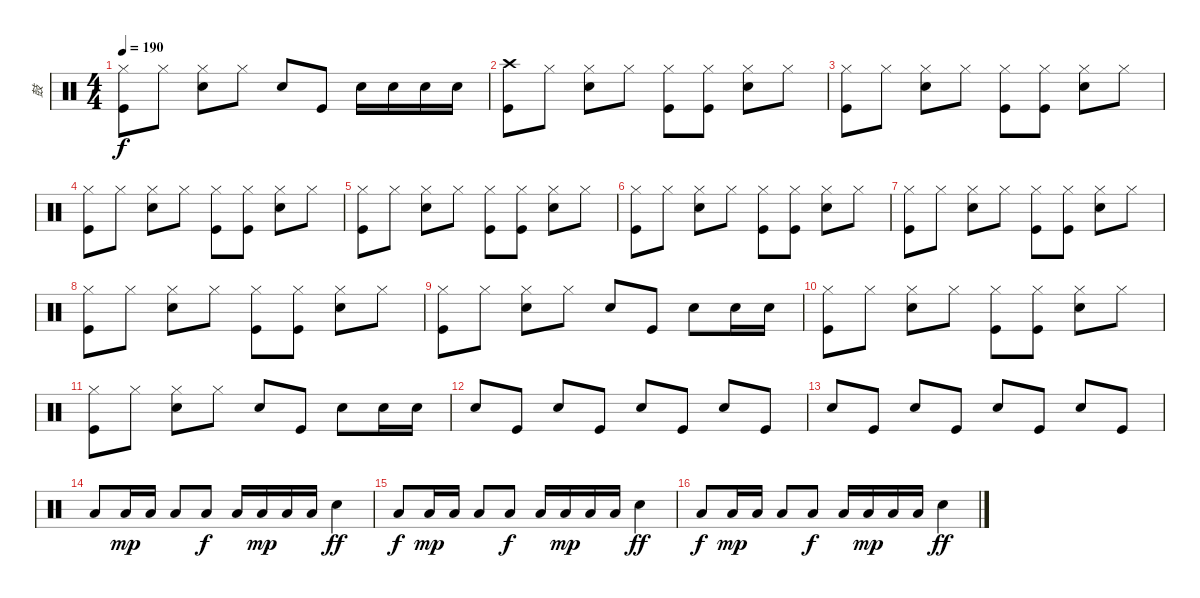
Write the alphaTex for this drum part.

\track ("鼓" "鼓") {instrument percussion}
\staff {score}
\articulation defaults
\ts (4 4)
\tempo 190
\clef neutral
\ks c
("Hi-Hat (closed)" "Kick (hit)").8{dy f} "Hi-Hat (closed)".8 ("Hi-Hat (closed)" "Snare (hit) 2").8 "Hi-Hat (closed)".8 "Snare (hit) 2".8 "Kick (hit)".8 "Snare (hit) 2".16 "Snare (hit) 2".16 "Snare (hit) 2".16 "Snare (hit) 2".16 |
("Crash high (hit)" "Kick (hit)").8 "Hi-Hat (closed)".8 ("Hi-Hat (closed)" "Snare (hit) 2").8 "Hi-Hat (closed)".8 ("Hi-Hat (closed)" "Kick (hit)").8 ("Hi-Hat (closed)" "Kick (hit)").8 ("Hi-Hat (closed)" "Snare (hit) 2").8 "Hi-Hat (closed)".8 |
("Hi-Hat (closed)" "Kick (hit)").8 "Hi-Hat (closed)".8 ("Hi-Hat (closed)" "Snare (hit) 2").8 "Hi-Hat (closed)".8 ("Hi-Hat (closed)" "Kick (hit)").8 ("Hi-Hat (closed)" "Kick (hit)").8 ("Hi-Hat (closed)" "Snare (hit) 2").8 "Hi-Hat (closed)".8 |
("Hi-Hat (closed)" "Kick (hit)").8 "Hi-Hat (closed)".8 ("Hi-Hat (closed)" "Snare (hit) 2").8 "Hi-Hat (closed)".8 ("Hi-Hat (closed)" "Kick (hit)").8 ("Hi-Hat (closed)" "Kick (hit)").8 ("Hi-Hat (closed)" "Snare (hit) 2").8 "Hi-Hat (closed)".8 |
("Hi-Hat (closed)" "Kick (hit)").8 "Hi-Hat (closed)".8 ("Hi-Hat (closed)" "Snare (hit) 2").8 "Hi-Hat (closed)".8 ("Hi-Hat (closed)" "Kick (hit)").8 ("Hi-Hat (closed)" "Kick (hit)").8 ("Hi-Hat (closed)" "Snare (hit) 2").8 "Hi-Hat (closed)".8 |
("Hi-Hat (closed)" "Kick (hit)").8 "Hi-Hat (closed)".8 ("Hi-Hat (closed)" "Snare (hit) 2").8 "Hi-Hat (closed)".8 ("Hi-Hat (closed)" "Kick (hit)").8 ("Hi-Hat (closed)" "Kick (hit)").8 ("Hi-Hat (closed)" "Snare (hit) 2").8 "Hi-Hat (closed)".8 |
("Hi-Hat (closed)" "Kick (hit)").8 "Hi-Hat (closed)".8 ("Hi-Hat (closed)" "Snare (hit) 2").8 "Hi-Hat (closed)".8 ("Hi-Hat (closed)" "Kick (hit)").8 ("Hi-Hat (closed)" "Kick (hit)").8 ("Hi-Hat (closed)" "Snare (hit) 2").8 "Hi-Hat (closed)".8 |
("Hi-Hat (closed)" "Kick (hit)").8 "Hi-Hat (closed)".8 ("Hi-Hat (closed)" "Snare (hit) 2").8 "Hi-Hat (closed)".8 ("Hi-Hat (closed)" "Kick (hit)").8 ("Hi-Hat (closed)" "Kick (hit)").8 ("Hi-Hat (closed)" "Snare (hit) 2").8 "Hi-Hat (closed)".8 |
("Hi-Hat (closed)" "Kick (hit)").8 "Hi-Hat (closed)".8 ("Hi-Hat (closed)" "Snare (hit) 2").8 "Hi-Hat (closed)".8 "Snare (hit) 2".8 "Kick (hit)".8 "Snare (hit) 2".8 "Snare (hit) 2".16 "Snare (hit) 2".16 |
("Hi-Hat (closed)" "Kick (hit)").8 "Hi-Hat (closed)".8 ("Hi-Hat (closed)" "Snare (hit) 2").8 "Hi-Hat (closed)".8 ("Hi-Hat (closed)" "Kick (hit)").8 ("Hi-Hat (closed)" "Kick (hit)").8 ("Hi-Hat (closed)" "Snare (hit) 2").8 "Hi-Hat (closed)".8 |
("Hi-Hat (closed)" "Kick (hit)").8 "Hi-Hat (closed)".8 ("Hi-Hat (closed)" "Snare (hit) 2").8 "Hi-Hat (closed)".8 "Snare (hit) 2".8 "Kick (hit)".8 "Snare (hit) 2".8 "Snare (hit) 2".16 "Snare (hit) 2".16 |
"Snare (hit) 2".8 "Kick (hit)".8 "Snare (hit) 2".8 "Kick (hit)".8 "Snare (hit) 2".8 "Kick (hit)".8 "Snare (hit) 2".8 "Kick (hit)".8 |
"Snare (hit) 2".8 "Kick (hit)".8 "Snare (hit) 2".8 "Kick (hit)".8 "Snare (hit) 2".8 "Kick (hit)".8 "Snare (hit) 2".8 "Kick (hit)".8 |
"Low Floor Tom (hit)".8 "Low Floor Tom (hit)".16{dy mp} "Low Floor Tom (hit)".16 "Low Floor Tom (hit)".8 "Low Floor Tom (hit)".8{dy f} "Low Floor Tom (hit)".16 "Low Floor Tom (hit)".16{dy mp} "Low Floor Tom (hit)".16 "Low Floor Tom (hit)".16 "Electric Snare (hit)".4{dy ff} |
"Low Floor Tom (hit)".8{dy f} "Low Floor Tom (hit)".16{dy mp} "Low Floor Tom (hit)".16 "Low Floor Tom (hit)".8 "Low Floor Tom (hit)".8{dy f} "Low Floor Tom (hit)".16 "Low Floor Tom (hit)".16{dy mp} "Low Floor Tom (hit)".16 "Low Floor Tom (hit)".16 "Electric Snare (hit)".4{dy ff} |
"Low Floor Tom (hit)".8{dy f} "Low Floor Tom (hit)".16{dy mp} "Low Floor Tom (hit)".16 "Low Floor Tom (hit)".8 "Low Floor Tom (hit)".8{dy f} "Low Floor Tom (hit)".16 "Low Floor Tom (hit)".16{dy mp} "Low Floor Tom (hit)".16 "Low Floor Tom (hit)".16 "Electric Snare (hit)".4{dy ff}
